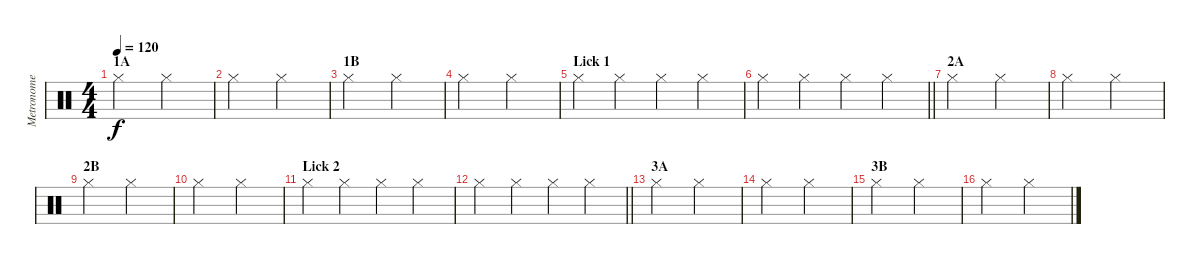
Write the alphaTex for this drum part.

\track ("Metronome" "Metronome") {instrument percussion}
\staff {score}
\articulation defaults
\ts (4 4)
\section ("" "1A")
\tempo 120
\clef neutral
\ks c "Hi-Hat (closed)".2{dy f} "Hi-Hat (closed)".2
|
"Hi-Hat (closed)".2 "Hi-Hat (closed)".2 |
\section ("" "1B")
"Hi-Hat (closed)".2 "Hi-Hat (closed)".2 |
"Hi-Hat (closed)".2 "Hi-Hat (closed)".2 |
\section ("" "Lick 1")
"Hi-Hat (closed)".4 "Hi-Hat (closed)".4 "Hi-Hat (closed)".4 "Hi-Hat (closed)".4 |
\barLineRight lightlight "Hi-Hat (closed)".4 "Hi-Hat (closed)".4 "Hi-Hat (closed)".4 "Hi-Hat (closed)".4
|
\section ("" "2A")
"Hi-Hat (closed)".2 "Hi-Hat (closed)".2 |
"Hi-Hat (closed)".2 "Hi-Hat (closed)".2 |
\section ("" "2B")
"Hi-Hat (closed)".2 "Hi-Hat (closed)".2 |
"Hi-Hat (closed)".2 "Hi-Hat (closed)".2 |
\section ("" "Lick 2")
"Hi-Hat (closed)".4 "Hi-Hat (closed)".4 "Hi-Hat (closed)".4 "Hi-Hat (closed)".4 |
\barLineRight lightlight "Hi-Hat (closed)".4 "Hi-Hat (closed)".4 "Hi-Hat (closed)".4 "Hi-Hat (closed)".4
|
\section ("" "3A")
"Hi-Hat (closed)".2 "Hi-Hat (closed)".2 |
"Hi-Hat (closed)".2 "Hi-Hat (closed)".2 |
\section ("" "3B")
"Hi-Hat (closed)".2 "Hi-Hat (closed)".2 |
"Hi-Hat (closed)".2 "Hi-Hat (closed)".2
